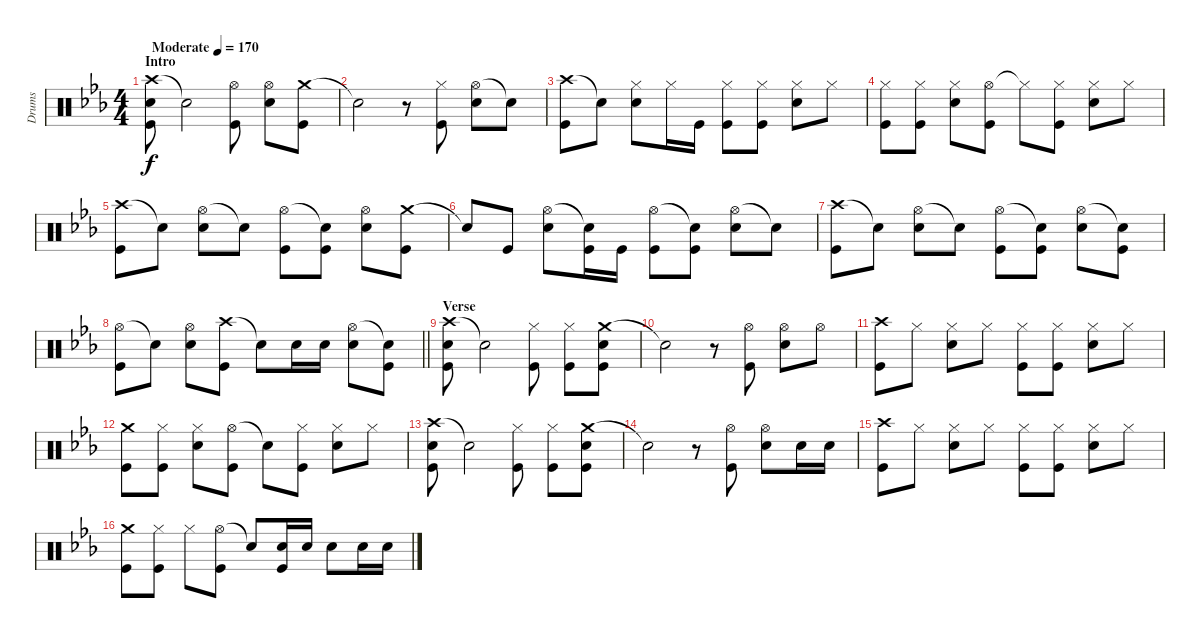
\track ("Drums" "Drums") {solo instrument percussion}
\staff {score}
\articulation defaults
\ts (4 4)
\section ("" "Intro")
\tempo (170 "Moderate")
\clef neutral
\ks eb
("Crash high (hit)" "Snare (hit) 2" "Kick (hit)").8{dy f} "Snare (hit)"{t}.2 ("Hi-Hat (open)" "Kick (hit)").8 ("Hi-Hat (open)" "Snare (hit) 2").8 ("Crash medium (hit)" "Kick (hit)").8 |
"Snare (hit)"{t}.2 r.8 ("Hi-Hat (closed)" "Kick (hit)").8 ("Hi-Hat (open)" "Snare (hit) 2").8 "Snare (hit)"{t}.8 |
("Crash high (hit)" "Kick (hit)").8 "Snare (hit)"{t}.8 ("Hi-Hat (closed)" "Snare (hit) 2").8 "Hi-Hat (closed)".16 "Kick (hit)".16 ("Hi-Hat (closed)" "Kick (hit)").8 ("Hi-Hat (closed)" "Kick (hit)").8 ("Hi-Hat (closed)" "Snare (hit) 2").8 "Hi-Hat (closed)".8 |
("Hi-Hat (closed)" "Kick (hit)").8 ("Hi-Hat (closed)" "Kick (hit)").8 ("Hi-Hat (closed)" "Snare (hit) 2").8 ("Hi-Hat (open)" "Kick (hit)").8 "Hi-Hat (closed)"{t}.8 ("Hi-Hat (closed)" "Kick (hit)").8 ("Hi-Hat (closed)" "Snare (hit) 2").8 "Hi-Hat (closed)".8 |
("Crash high (hit)" "Kick (hit)").8 "Snare (hit)"{t}.8 ("Hi-Hat (open)" "Snare (hit) 2").8 "Snare (hit)"{t}.8 ("Hi-Hat (open)" "Kick (hit)").8 ("Snare (hit)"{t} "Kick (hit)").8 ("Hi-Hat (open)" "Snare (hit) 2").8 ("Crash medium (hit)" "Kick (hit)").8 |
"Snare (hit)"{t}.8 "Kick (hit)".8 ("Hi-Hat (open)" "Snare (hit) 2").8 ("Snare (hit)"{t} "Kick (hit)").16 "Kick (hit)".16 ("Hi-Hat (open)" "Kick (hit)").8 ("Snare (hit)"{t} "Kick (hit)").8 ("Hi-Hat (open)" "Snare (hit) 2").8 "Snare (hit)"{t}.8 |
("Crash high (hit)" "Kick (hit)").8 "Snare (hit)"{t}.8 ("Hi-Hat (open)" "Snare (hit) 2").8 "Snare (hit)"{t}.8 ("Hi-Hat (open)" "Kick (hit)").8 ("Snare (hit)"{t} "Kick (hit)").8 ("Hi-Hat (open)" "Snare (hit) 2").8 ("Snare (hit)"{t} "Kick (hit)").8 |
\barLineRight lightlight
("Hi-Hat (open)" "Kick (hit)").8 "Snare (hit)"{t}.8 ("Hi-Hat (open)" "Snare (hit) 2").8 ("Crash high (hit)" "Kick (hit)").8 "Snare (hit)"{t}.8 "Snare (hit) 2".16 "Snare (hit) 2".16 ("Hi-Hat (open)" "Snare (hit) 2").8 ("Snare (hit)"{t} "Kick (hit)").8 |
\section ("" "Verse")
("Crash high (hit)" "Snare (hit) 2" "Kick (hit)").8 "Snare (hit)"{t}.2 ("Hi-Hat (closed)" "Kick (hit)").8 ("Hi-Hat (closed)" "Kick (hit)").8 ("Crash medium (hit)" "Snare (hit) 2" "Kick (hit)").8 |
"Snare (hit)"{t}.2 r.8 ("Hi-Hat (open)" "Kick (hit)").8 ("Hi-Hat (open)" "Snare (hit) 2").8 "Hi-Hat (open)".8 |
("Crash high (hit)" "Kick (hit)").8 "Hi-Hat (closed)".8 ("Hi-Hat (closed)" "Snare (hit) 2").8 "Hi-Hat (closed)".8 ("Hi-Hat (closed)" "Kick (hit)").8 ("Hi-Hat (closed)" "Kick (hit)").8 ("Hi-Hat (closed)" "Snare (hit) 2").8 "Hi-Hat (closed)".8 |
("Crash medium (hit)" "Kick (hit)").8 ("Hi-Hat (closed)" "Kick (hit)").8 ("Hi-Hat (closed)" "Snare (hit) 2").8 ("Hi-Hat (open)" "Kick (hit)").8 "Snare (hit)"{t}.8 ("Hi-Hat (closed)" "Kick (hit)").8 ("Hi-Hat (closed)" "Snare (hit) 2").8 "Hi-Hat (closed)".8 |
("Crash high (hit)" "Snare (hit) 2" "Kick (hit)").8 "Snare (hit)"{t}.2 ("Hi-Hat (closed)" "Kick (hit)").8 ("Hi-Hat (closed)" "Kick (hit)").8 ("Crash medium (hit)" "Snare (hit) 2" "Kick (hit)").8 |
"Snare (hit)"{t}.2 r.8 ("Hi-Hat (open)" "Kick (hit)").8 ("Hi-Hat (open)" "Snare (hit) 2").8 "Snare (hit) 2".16 "Snare (hit) 2".16 |
("Crash high (hit)" "Kick (hit)").8 "Hi-Hat (closed)".8 ("Hi-Hat (closed)" "Snare (hit) 2").8 "Hi-Hat (closed)".8 ("Hi-Hat (closed)" "Kick (hit)").8 ("Hi-Hat (closed)" "Kick (hit)").8 ("Hi-Hat (closed)" "Snare (hit) 2").8 "Hi-Hat (closed)".8 |
("Crash medium (hit)" "Kick (hit)").8 ("Hi-Hat (closed)" "Kick (hit)").8 "Hi-Hat (closed)".8 ("Hi-Hat (open)" "Kick (hit)").8 "Snare (hit)"{t}.8 ("Snare (hit) 2" "Kick (hit)").16 "Snare (hit) 2".16 "Snare (hit) 2".8 "Snare (hit) 2".16 "Snare (hit) 2".16
